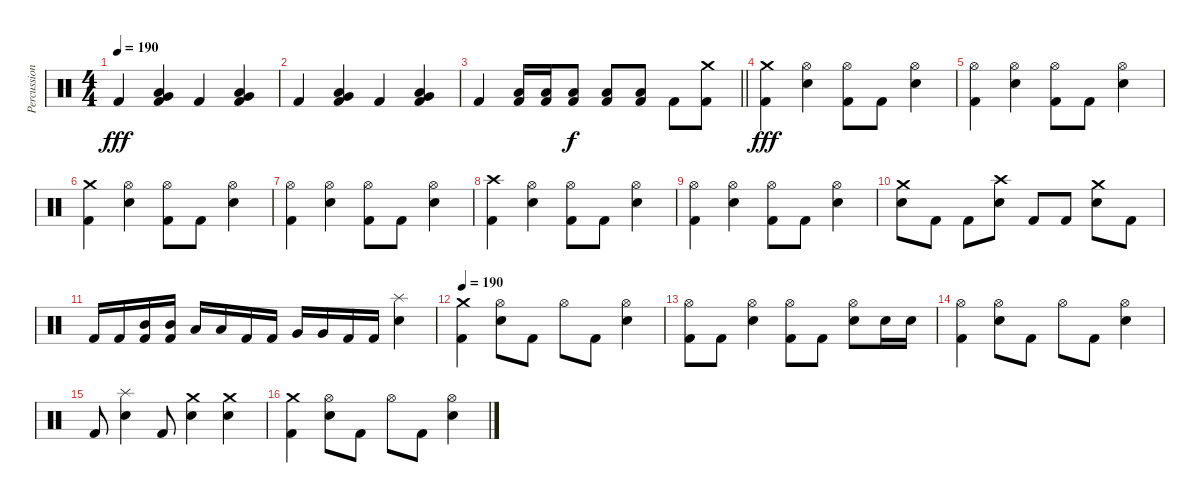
\track ("Percussion" "Percussion") {instrument percussion}
\staff {score}
\articulation defaults
\ts (4 4)
\tempo 190
\clef neutral
\ks c "Kick (hit) 2".4{dy fff}
("Low Floor Tom (hit)" "Very Low Tom (hit)" "Kick (hit) 2").4 "Kick (hit) 2".4 ("Low Floor Tom (hit)" "Very Low Tom (hit)" "Kick (hit) 2").4 |
"Kick (hit) 2".4 ("Low Floor Tom (hit)" "Very Low Tom (hit)" "Kick (hit) 2").4 "Kick (hit) 2".4 ("Low Floor Tom (hit)" "Very Low Tom (hit)" "Kick (hit) 2").4 |
\barLineRight lightlight "Kick (hit) 2".4
("Low Floor Tom (hit)" "Kick (hit) 2").16 ("Low Floor Tom (hit)" "Kick (hit) 2").16 ("Low Floor Tom (hit)" "Kick (hit) 2").8{dy f} ("Low Floor Tom (hit)" "Kick (hit) 2").8 ("Low Floor Tom (hit)" "Kick (hit) 2").8 "Kick (hit) 2".8 ("Crash medium (hit)" "Kick (hit) 2").8 |
("Crash medium (hit)" "Kick (hit) 2").4{dy fff} ("Hi-Hat (open)" "Electric Snare (hit)").4 ("Hi-Hat (open)" "Kick (hit) 2").8 "Kick (hit) 2".8 ("Hi-Hat (open)" "Electric Snare (hit)").4 |
("Hi-Hat (open)" "Kick (hit) 2").4 ("Hi-Hat (open)" "Electric Snare (hit)").4 ("Hi-Hat (open)" "Kick (hit) 2").8 "Kick (hit) 2".8 ("Hi-Hat (open)" "Electric Snare (hit)").4 |
("Crash medium (hit)" "Kick (hit) 2").4 ("Hi-Hat (open)" "Electric Snare (hit)").4 ("Hi-Hat (open)" "Kick (hit) 2").8 "Kick (hit) 2".8 ("Hi-Hat (open)" "Electric Snare (hit)").4 |
("Hi-Hat (open)" "Kick (hit) 2").4 ("Hi-Hat (open)" "Electric Snare (hit)").4 ("Hi-Hat (open)" "Kick (hit) 2").8 "Kick (hit) 2".8 ("Hi-Hat (open)" "Electric Snare (hit)").4 |
("Crash high (hit)" "Kick (hit) 2").4 ("Hi-Hat (open)" "Electric Snare (hit)").4 ("Hi-Hat (open)" "Kick (hit) 2").8 "Kick (hit) 2".8 ("Hi-Hat (open)" "Electric Snare (hit)").4 |
("Hi-Hat (open)" "Kick (hit) 2").4 ("Hi-Hat (open)" "Electric Snare (hit)").4 ("Hi-Hat (open)" "Kick (hit) 2").8 "Kick (hit) 2".8 ("Hi-Hat (open)" "Electric Snare (hit)").4 |
("Crash medium (hit)" "Electric Snare (hit)").8 "Kick (hit) 2".8 "Kick (hit) 2".8 ("Crash high (hit)" "Electric Snare (hit)").8 "Kick (hit) 2".8 "Kick (hit) 2".8 ("Crash medium (hit)" "Electric Snare (hit)").8 "Kick (hit) 2".8 |
"Kick (hit) 2".16 "Kick (hit) 2".16 ("Mid Tom (hit)" "Kick (hit) 2").16 ("Mid Tom (hit)" "Kick (hit) 2").16 "Low Tom (hit)".16 "Low Tom (hit)".16 "Kick (hit) 2".16 "Kick (hit) 2".16 "Very Low Tom (hit)".16 "Very Low Tom (hit)".16 "Kick (hit) 2".16 "Kick (hit) 2".16 ("Splash (hit)" "Electric Snare (hit)").4 |
\tempo 190
("Crash medium (hit)" "Kick (hit) 2").4 ("Hi-Hat (open)" "Electric Snare (hit)").8 "Kick (hit) 2".8 "Hi-Hat (open)".8 "Kick (hit) 2".8 ("Hi-Hat (open)" "Electric Snare (hit)").4 |
("Hi-Hat (open)" "Kick (hit) 2").8 "Kick (hit) 2".8 ("Hi-Hat (open)" "Electric Snare (hit)").4 ("Hi-Hat (open)" "Kick (hit) 2").8 "Kick (hit) 2".8 ("Hi-Hat (open)" "Electric Snare (hit)").8 "Electric Snare (hit)".16 "Electric Snare (hit)".16 |
("Hi-Hat (open)" "Kick (hit) 2").4 ("Hi-Hat (open)" "Electric Snare (hit)").8 "Kick (hit) 2".8 "Hi-Hat (open)".8 "Kick (hit) 2".8 ("Hi-Hat (open)" "Electric Snare (hit)").4 |
"Kick (hit) 2".8 ("Splash (hit)" "Electric Snare (hit)").4 "Kick (hit) 2".8 ("Crash medium (hit)" "Electric Snare (hit)").4 ("Crash medium (hit)" "Electric Snare (hit)").4 |
("Crash medium (hit)" "Kick (hit) 2").4 ("Hi-Hat (open)" "Electric Snare (hit)").8 "Kick (hit) 2".8 "Hi-Hat (open)".8 "Kick (hit) 2".8 ("Hi-Hat (open)" "Electric Snare (hit)").4
